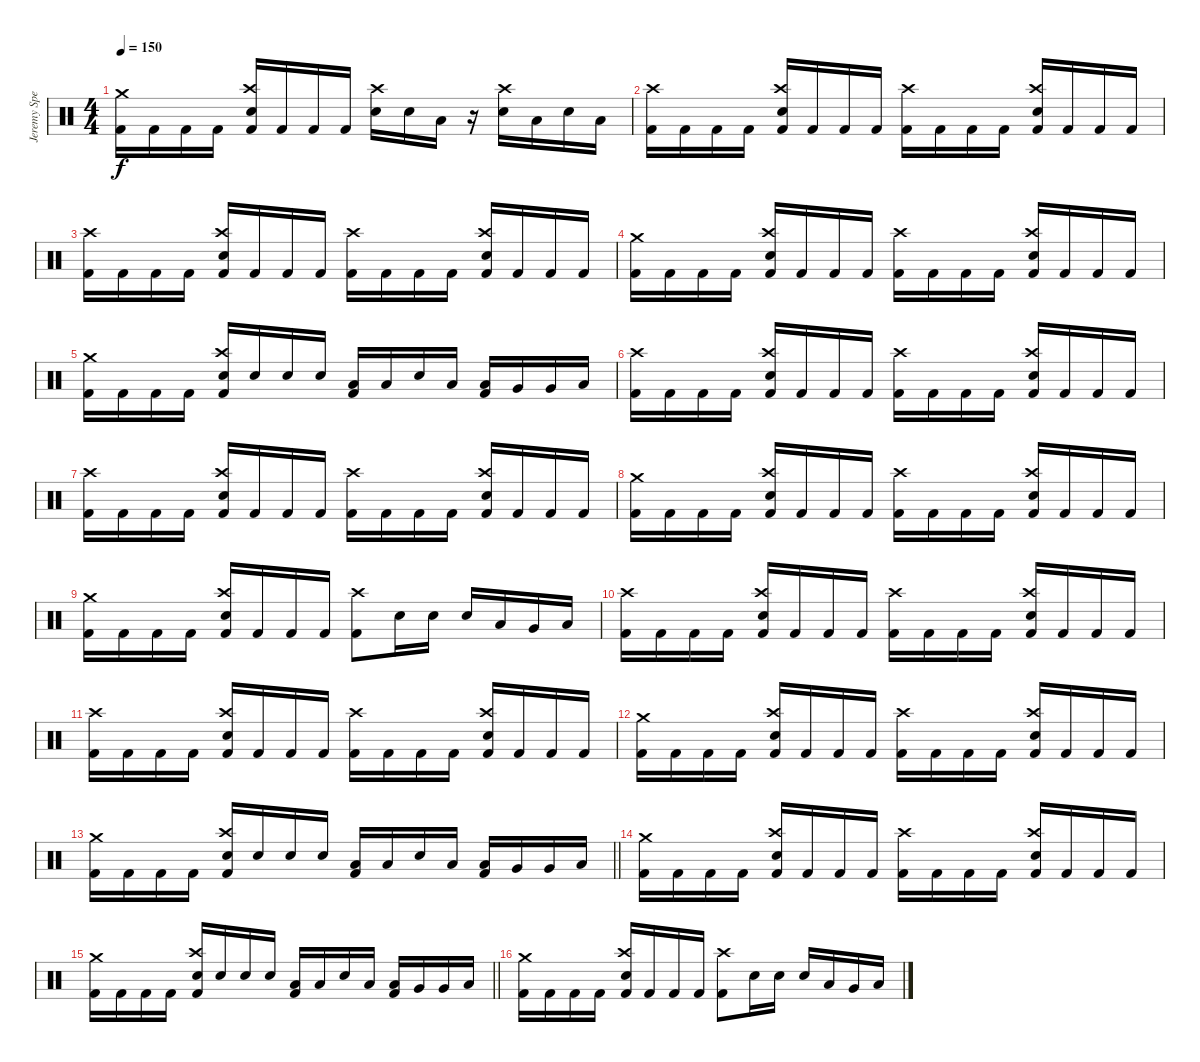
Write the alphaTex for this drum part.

\track ("Jeremy Spencer – Drums" "Jeremy Spe") {instrument percussion}
\staff {score}
\articulation defaults
\ts (4 4)
\tempo 150
\clef neutral
\ks c
("Crash medium (hit)" "Kick (hit) 2").16{dy f} "Kick (hit) 2".16 "Kick (hit) 2".16 "Kick (hit) 2".16 ("Crash high (hit)" "Snare (hit) 2" "Kick (hit) 2").16 "Kick (hit) 2".16 "Kick (hit) 2".16 "Kick (hit) 2".16 ("Crash high (hit)" "Snare (hit) 2").16 "Snare (hit) 2".16 "Low Tom (hit)".16 r.16 ("Crash high (hit)" "Snare (hit) 2").16 "Low Tom (hit)".16 "Snare (hit) 2".16 "Low Floor Tom (hit)".16 |
("Crash high (hit)" "Kick (hit) 2").16 "Kick (hit) 2".16 "Kick (hit) 2".16 "Kick (hit) 2".16 ("Crash high (hit)" "Snare (hit) 2" "Kick (hit) 2").16 "Kick (hit) 2".16 "Kick (hit) 2".16 "Kick (hit) 2".16 ("Crash high (hit)" "Kick (hit) 2").16 "Kick (hit) 2".16 "Kick (hit) 2".16 "Kick (hit) 2".16 ("Crash high (hit)" "Snare (hit) 2" "Kick (hit) 2").16 "Kick (hit) 2".16 "Kick (hit) 2".16 "Kick (hit) 2".16 |
("Crash high (hit)" "Kick (hit) 2").16 "Kick (hit) 2".16 "Kick (hit) 2".16 "Kick (hit) 2".16 ("Crash high (hit)" "Snare (hit) 2" "Kick (hit) 2").16 "Kick (hit) 2".16 "Kick (hit) 2".16 "Kick (hit) 2".16 ("Crash high (hit)" "Kick (hit) 2").16 "Kick (hit) 2".16 "Kick (hit) 2".16 "Kick (hit) 2".16 ("Crash high (hit)" "Snare (hit) 2" "Kick (hit) 2").16 "Kick (hit) 2".16 "Kick (hit) 2".16 "Kick (hit) 2".16 |
("Crash medium (hit)" "Kick (hit) 2").16 "Kick (hit) 2".16 "Kick (hit) 2".16 "Kick (hit) 2".16 ("Crash high (hit)" "Snare (hit) 2" "Kick (hit) 2").16 "Kick (hit) 2".16 "Kick (hit) 2".16 "Kick (hit) 2".16 ("Crash high (hit)" "Kick (hit) 2").16 "Kick (hit) 2".16 "Kick (hit) 2".16 "Kick (hit) 2".16 ("Crash high (hit)" "Snare (hit) 2" "Kick (hit) 2").16 "Kick (hit) 2".16 "Kick (hit) 2".16 "Kick (hit) 2".16 |
("Crash medium (hit)" "Kick (hit) 2").16 "Kick (hit) 2".16 "Kick (hit) 2".16 "Kick (hit) 2".16 ("Crash high (hit)" "Snare (hit) 2" "Kick (hit) 2").16 "Snare (hit) 2".16 "Snare (hit) 2".16 "Snare (hit) 2".16 ("Low Tom (hit)" "Kick (hit) 2").16 "Low Tom (hit)".16 "Snare (hit) 2".16 "Low Tom (hit)".16 ("Low Tom (hit)" "Kick (hit) 2").16 "Very Low Tom (hit)".16 "Very Low Tom (hit)".16 "Low Floor Tom (hit)".16 |
("Crash high (hit)" "Kick (hit) 2").16 "Kick (hit) 2".16 "Kick (hit) 2".16 "Kick (hit) 2".16 ("Crash high (hit)" "Snare (hit) 2" "Kick (hit) 2").16 "Kick (hit) 2".16 "Kick (hit) 2".16 "Kick (hit) 2".16 ("Crash high (hit)" "Kick (hit) 2").16 "Kick (hit) 2".16 "Kick (hit) 2".16 "Kick (hit) 2".16 ("Crash high (hit)" "Snare (hit) 2" "Kick (hit) 2").16 "Kick (hit) 2".16 "Kick (hit) 2".16 "Kick (hit) 2".16 |
("Crash high (hit)" "Kick (hit) 2").16 "Kick (hit) 2".16 "Kick (hit) 2".16 "Kick (hit) 2".16 ("Crash high (hit)" "Snare (hit) 2" "Kick (hit) 2").16 "Kick (hit) 2".16 "Kick (hit) 2".16 "Kick (hit) 2".16 ("Crash high (hit)" "Kick (hit) 2").16 "Kick (hit) 2".16 "Kick (hit) 2".16 "Kick (hit) 2".16 ("Crash high (hit)" "Snare (hit) 2" "Kick (hit) 2").16 "Kick (hit) 2".16 "Kick (hit) 2".16 "Kick (hit) 2".16 |
("Crash medium (hit)" "Kick (hit) 2").16 "Kick (hit) 2".16 "Kick (hit) 2".16 "Kick (hit) 2".16 ("Crash high (hit)" "Snare (hit) 2" "Kick (hit) 2").16 "Kick (hit) 2".16 "Kick (hit) 2".16 "Kick (hit) 2".16 ("Crash high (hit)" "Kick (hit) 2").16 "Kick (hit) 2".16 "Kick (hit) 2".16 "Kick (hit) 2".16 ("Crash high (hit)" "Snare (hit) 2" "Kick (hit) 2").16 "Kick (hit) 2".16 "Kick (hit) 2".16 "Kick (hit) 2".16 |
("Crash medium (hit)" "Kick (hit) 2").16 "Kick (hit) 2".16 "Kick (hit) 2".16 "Kick (hit) 2".16 ("Crash high (hit)" "Snare (hit) 2" "Kick (hit) 2").16 "Kick (hit) 2".16 "Kick (hit) 2".16 "Kick (hit) 2".16 ("Crash high (hit)" "Kick (hit) 2").8 "Snare (hit) 2".16 "Snare (hit) 2".16 "Snare (hit) 2".16 "Low Tom (hit)".16 "Very Low Tom (hit)".16 "Low Floor Tom (hit)".16 |
("Crash high (hit)" "Kick (hit) 2").16 "Kick (hit) 2".16 "Kick (hit) 2".16 "Kick (hit) 2".16 ("Crash high (hit)" "Snare (hit) 2" "Kick (hit) 2").16 "Kick (hit) 2".16 "Kick (hit) 2".16 "Kick (hit) 2".16 ("Crash high (hit)" "Kick (hit) 2").16 "Kick (hit) 2".16 "Kick (hit) 2".16 "Kick (hit) 2".16 ("Crash high (hit)" "Snare (hit) 2" "Kick (hit) 2").16 "Kick (hit) 2".16 "Kick (hit) 2".16 "Kick (hit) 2".16 |
("Crash high (hit)" "Kick (hit) 2").16 "Kick (hit) 2".16 "Kick (hit) 2".16 "Kick (hit) 2".16 ("Crash high (hit)" "Snare (hit) 2" "Kick (hit) 2").16 "Kick (hit) 2".16 "Kick (hit) 2".16 "Kick (hit) 2".16 ("Crash high (hit)" "Kick (hit) 2").16 "Kick (hit) 2".16 "Kick (hit) 2".16 "Kick (hit) 2".16 ("Crash high (hit)" "Snare (hit) 2" "Kick (hit) 2").16 "Kick (hit) 2".16 "Kick (hit) 2".16 "Kick (hit) 2".16 |
("Crash medium (hit)" "Kick (hit) 2").16 "Kick (hit) 2".16 "Kick (hit) 2".16 "Kick (hit) 2".16 ("Crash high (hit)" "Snare (hit) 2" "Kick (hit) 2").16 "Kick (hit) 2".16 "Kick (hit) 2".16 "Kick (hit) 2".16 ("Crash high (hit)" "Kick (hit) 2").16 "Kick (hit) 2".16 "Kick (hit) 2".16 "Kick (hit) 2".16 ("Crash high (hit)" "Snare (hit) 2" "Kick (hit) 2").16 "Kick (hit) 2".16 "Kick (hit) 2".16 "Kick (hit) 2".16 |
\barLineRight lightlight
("Crash medium (hit)" "Kick (hit) 2").16 "Kick (hit) 2".16 "Kick (hit) 2".16 "Kick (hit) 2".16 ("Crash high (hit)" "Snare (hit) 2" "Kick (hit) 2").16 "Snare (hit) 2".16 "Snare (hit) 2".16 "Snare (hit) 2".16 ("Low Tom (hit)" "Kick (hit) 2").16 "Low Tom (hit)".16 "Snare (hit) 2".16 "Low Tom (hit)".16 ("Low Tom (hit)" "Kick (hit) 2").16 "Very Low Tom (hit)".16 "Very Low Tom (hit)".16 "Low Floor Tom (hit)".16 |
("Crash medium (hit)" "Kick (hit) 2").16 "Kick (hit) 2".16 "Kick (hit) 2".16 "Kick (hit) 2".16 ("Crash high (hit)" "Snare (hit) 2" "Kick (hit) 2").16 "Kick (hit) 2".16 "Kick (hit) 2".16 "Kick (hit) 2".16 ("Crash high (hit)" "Kick (hit) 2").16 "Kick (hit) 2".16 "Kick (hit) 2".16 "Kick (hit) 2".16 ("Crash high (hit)" "Snare (hit) 2" "Kick (hit) 2").16 "Kick (hit) 2".16 "Kick (hit) 2".16 "Kick (hit) 2".16 |
\barLineRight lightlight
("Crash medium (hit)" "Kick (hit) 2").16 "Kick (hit) 2".16 "Kick (hit) 2".16 "Kick (hit) 2".16 ("Crash high (hit)" "Snare (hit) 2" "Kick (hit) 2").16 "Snare (hit) 2".16 "Snare (hit) 2".16 "Snare (hit) 2".16 ("Low Tom (hit)" "Kick (hit) 2").16 "Low Tom (hit)".16 "Snare (hit) 2".16 "Low Tom (hit)".16 ("Low Tom (hit)" "Kick (hit) 2").16 "Very Low Tom (hit)".16 "Very Low Tom (hit)".16 "Low Floor Tom (hit)".16 |
("Crash medium (hit)" "Kick (hit) 2").16 "Kick (hit) 2".16 "Kick (hit) 2".16 "Kick (hit) 2".16 ("Crash high (hit)" "Snare (hit) 2" "Kick (hit) 2").16 "Kick (hit) 2".16 "Kick (hit) 2".16 "Kick (hit) 2".16 ("Crash high (hit)" "Kick (hit) 2").8 "Snare (hit) 2".16 "Snare (hit) 2".16 "Snare (hit) 2".16 "Low Tom (hit)".16 "Very Low Tom (hit)".16 "Low Floor Tom (hit)".16
